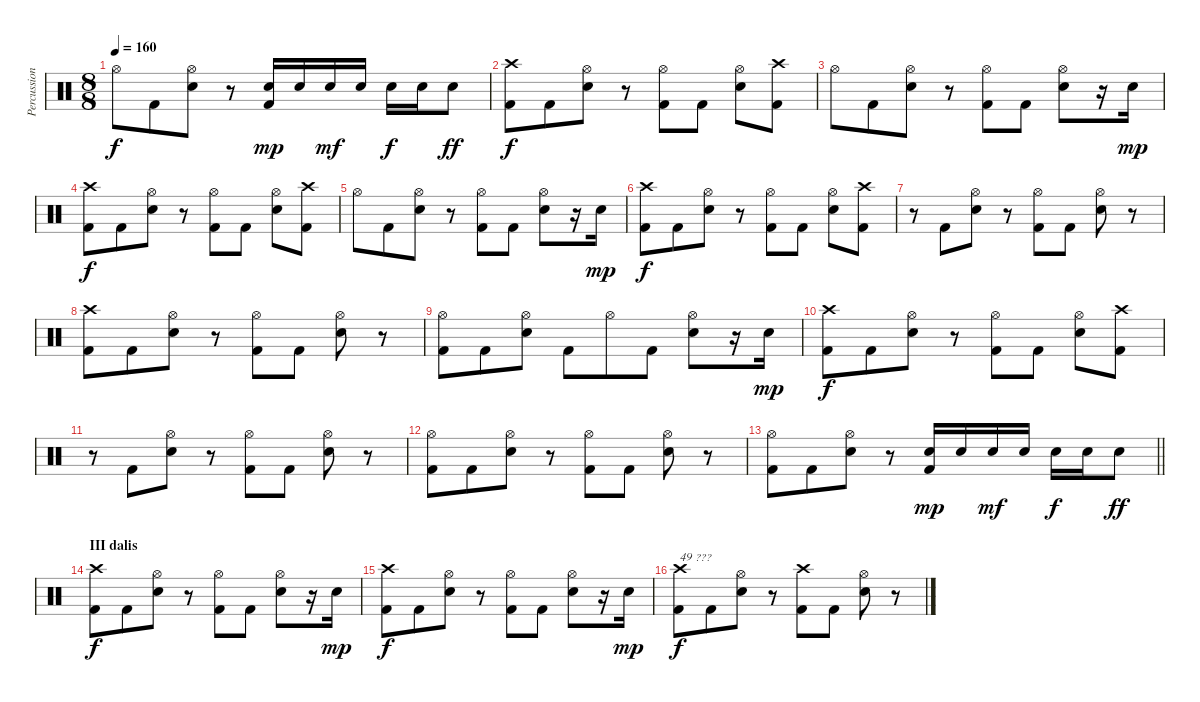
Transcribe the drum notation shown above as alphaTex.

\track ("Percussion" "Percussion") {instrument percussion}
\staff {score}
\articulation defaults
\ts (8 8)
\tempo 160
\clef neutral
\ks c "Hi-Hat (open)".8{dy f} "Kick (hit) 2".8
("Hi-Hat (open)" "Snare (hit) 2").8 r.8 ("Snare (hit) 2" "Kick (hit) 2").16{dy mp} "Snare (hit) 2".16 "Snare (hit) 2".16{dy mf} "Snare (hit) 2".16 "Snare (hit) 2".16{dy f} "Snare (hit) 2".16 "Snare (hit) 2".8{dy ff} |
("Crash high (hit)" "Kick (hit) 2").8{dy f} "Kick (hit) 2".8 ("Hi-Hat (open)" "Snare (hit) 2").8 r.8 ("Hi-Hat (open)" "Kick (hit) 2").8 "Kick (hit) 2".8 ("Hi-Hat (open)" "Snare (hit) 2").8 ("Crash high (hit)" "Kick (hit) 2").8 |
"Hi-Hat (open)".8 "Kick (hit) 2".8 ("Hi-Hat (open)" "Snare (hit) 2").8 r.8 ("Hi-Hat (open)" "Kick (hit) 2").8 "Kick (hit) 2".8 ("Hi-Hat (open)" "Snare (hit) 2").8 r.16 "Snare (hit) 2".16{dy mp} |
("Crash high (hit)" "Kick (hit) 2").8{dy f} "Kick (hit) 2".8 ("Hi-Hat (open)" "Snare (hit) 2").8 r.8 ("Hi-Hat (open)" "Kick (hit) 2").8 "Kick (hit) 2".8 ("Hi-Hat (open)" "Snare (hit) 2").8 ("Crash high (hit)" "Kick (hit) 2").8 |
"Hi-Hat (open)".8 "Kick (hit) 2".8 ("Hi-Hat (open)" "Snare (hit) 2").8 r.8 ("Hi-Hat (open)" "Kick (hit) 2").8 "Kick (hit) 2".8 ("Hi-Hat (open)" "Snare (hit) 2").8 r.16 "Snare (hit) 2".16{dy mp} |
("Crash high (hit)" "Kick (hit) 2").8{dy f} "Kick (hit) 2".8 ("Hi-Hat (open)" "Snare (hit) 2").8 r.8 ("Hi-Hat (open)" "Kick (hit) 2").8 "Kick (hit) 2".8 ("Hi-Hat (open)" "Snare (hit) 2").8 ("Crash high (hit)" "Kick (hit) 2").8 |
r.8 "Kick (hit) 2".8 ("Hi-Hat (open)" "Snare (hit) 2").8 r.8 ("Hi-Hat (open)" "Kick (hit) 2").8 "Kick (hit) 2".8 ("Hi-Hat (open)" "Snare (hit) 2").8 r.8 |
("Crash high (hit)" "Kick (hit) 2").8 "Kick (hit) 2".8 ("Hi-Hat (open)" "Snare (hit) 2").8 r.8 ("Hi-Hat (open)" "Kick (hit) 2").8 "Kick (hit) 2".8 ("Hi-Hat (open)" "Snare (hit) 2").8 r.8 |
("Hi-Hat (open)" "Kick (hit) 2").8 "Kick (hit) 2".8 ("Hi-Hat (open)" "Snare (hit) 2").8 "Kick (hit) 2".8 "Hi-Hat (open)".8 "Kick (hit) 2".8 ("Hi-Hat (open)" "Snare (hit) 2").8 r.16 "Snare (hit) 2".16{dy mp} |
("Crash high (hit)" "Kick (hit) 2").8{dy f} "Kick (hit) 2".8 ("Hi-Hat (open)" "Snare (hit) 2").8 r.8 ("Hi-Hat (open)" "Kick (hit) 2").8 "Kick (hit) 2".8 ("Hi-Hat (open)" "Snare (hit) 2").8 ("Crash high (hit)" "Kick (hit) 2").8 |
r.8 "Kick (hit) 2".8 ("Hi-Hat (open)" "Snare (hit) 2").8 r.8 ("Hi-Hat (open)" "Kick (hit) 2").8 "Kick (hit) 2".8 ("Hi-Hat (open)" "Snare (hit) 2").8 r.8 |
("Hi-Hat (open)" "Kick (hit) 2").8 "Kick (hit) 2".8 ("Hi-Hat (open)" "Snare (hit) 2").8 r.8 ("Hi-Hat (open)" "Kick (hit) 2").8 "Kick (hit) 2".8 ("Hi-Hat (open)" "Snare (hit) 2").8 r.8 |
\barLineRight lightlight
("Hi-Hat (open)" "Kick (hit) 2").8 "Kick (hit) 2".8 ("Hi-Hat (open)" "Snare (hit) 2").8 r.8 ("Snare (hit) 2" "Kick (hit) 2").16{dy mp} "Snare (hit) 2".16 "Snare (hit) 2".16{dy mf} "Snare (hit) 2".16 "Snare (hit) 2".16{dy f} "Snare (hit) 2".16 "Snare (hit) 2".8{dy ff} |
\section ("" "III dalis")
("Crash high (hit)" "Kick (hit) 2").8{dy f} "Kick (hit) 2".8 ("Hi-Hat (open)" "Snare (hit) 2").8 r.8 ("Hi-Hat (open)" "Kick (hit) 2").8 "Kick (hit) 2".8 ("Hi-Hat (open)" "Snare (hit) 2").8 r.16 "Snare (hit) 2".16{dy mp} |
("Crash high (hit)" "Kick (hit) 2").8{dy f} "Kick (hit) 2".8 ("Hi-Hat (open)" "Snare (hit) 2").8 r.8 ("Hi-Hat (open)" "Kick (hit) 2").8 "Kick (hit) 2".8 ("Hi-Hat (open)" "Snare (hit) 2").8 r.16 "Snare (hit) 2".16{dy mp} |
("Crash high (hit)" "Kick (hit) 2").8{txt "49 ???" dy f} "Kick (hit) 2".8 ("Hi-Hat (open)" "Snare (hit) 2").8 r.8 ("Crash high (hit)" "Kick (hit) 2").8 "Kick (hit) 2".8 ("Hi-Hat (open)" "Snare (hit) 2").8 r.8
